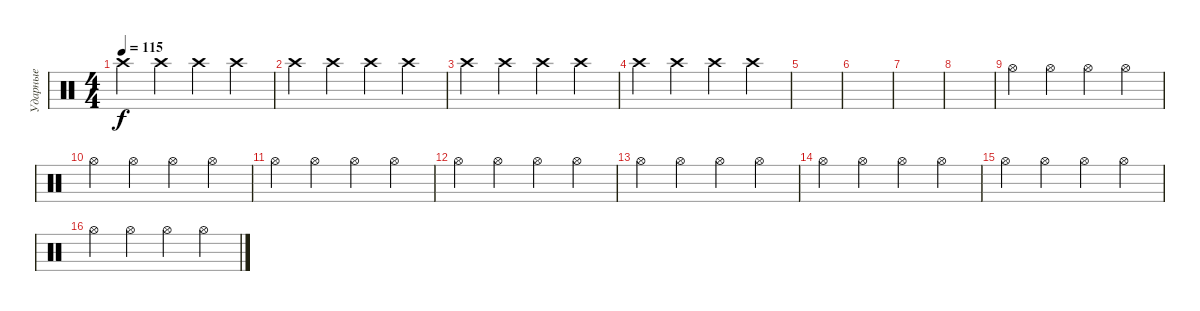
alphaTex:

\track ("Ударные" "Ударные") {instrument percussion}
\staff {score}
\articulation defaults
\ts (4 4)
\tempo 115
\clef neutral
\ks c "Crash high (hit)".4{dy f} "Crash high (hit)".4 "Crash high (hit)".4 "Crash high (hit)".4
|
"Crash high (hit)".4 "Crash high (hit)".4 "Crash high (hit)".4 "Crash high (hit)".4 |
"Crash high (hit)".4 "Crash high (hit)".4 "Crash high (hit)".4 "Crash high (hit)".4 |
"Crash high (hit)".4 "Crash high (hit)".4 "Crash high (hit)".4 "Crash high (hit)".4 |
|
|
|
|
"Hi-Hat (open)".4 "Hi-Hat (open)".4 "Hi-Hat (open)".4 "Hi-Hat (open)".4 |
"Hi-Hat (open)".4 "Hi-Hat (open)".4 "Hi-Hat (open)".4 "Hi-Hat (open)".4 |
"Hi-Hat (open)".4 "Hi-Hat (open)".4 "Hi-Hat (open)".4 "Hi-Hat (open)".4 |
"Hi-Hat (open)".4 "Hi-Hat (open)".4 "Hi-Hat (open)".4 "Hi-Hat (open)".4 |
"Hi-Hat (open)".4 "Hi-Hat (open)".4 "Hi-Hat (open)".4 "Hi-Hat (open)".4 |
"Hi-Hat (open)".4 "Hi-Hat (open)".4 "Hi-Hat (open)".4 "Hi-Hat (open)".4 |
"Hi-Hat (open)".4 "Hi-Hat (open)".4 "Hi-Hat (open)".4 "Hi-Hat (open)".4 |
"Hi-Hat (open)".4 "Hi-Hat (open)".4 "Hi-Hat (open)".4 "Hi-Hat (open)".4
